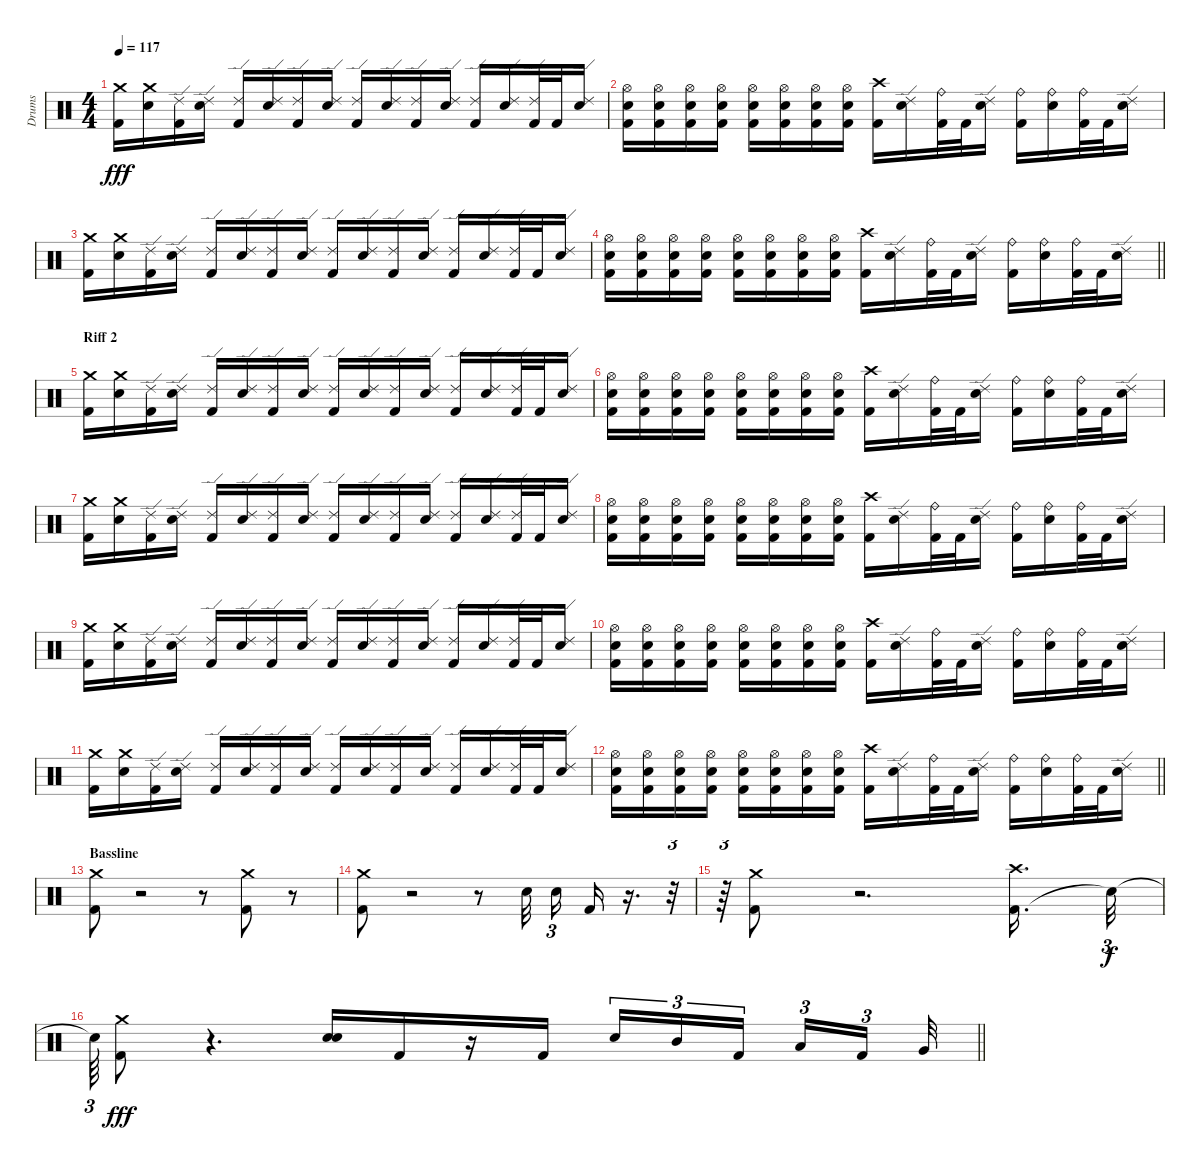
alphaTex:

\track ("Drums" "Drums") {instrument percussion}
\staff {score}
\articulation defaults
\ts (4 4)
\tempo 117
\clef neutral
\ks c
("Kick (hit) 2" "Crash medium (hit)").16{dy fff} ("Snare (hit) 2" "Crash medium (hit)").16 ("Kick (hit) 2" "Ride (edge) 2").16 ("Snare (hit) 2" "Ride (edge) 2").16 ("Kick (hit) 2" "Ride (edge) 2").16 ("Snare (hit) 2" "Ride (edge) 2").16 ("Kick (hit) 2" "Ride (edge) 2").16 ("Snare (hit) 2" "Ride (edge) 2").16 ("Kick (hit) 2" "Ride (edge) 2").16 ("Snare (hit) 2" "Ride (edge) 2").16 ("Kick (hit) 2" "Ride (edge) 2").16 ("Snare (hit) 2" "Ride (edge) 2").16 ("Kick (hit) 2" "Ride (edge) 2").16 ("Snare (hit) 2" "Ride (edge) 2").16 ("Kick (hit) 2" "Ride (edge) 2").32 "Kick (hit) 2".32 ("Snare (hit) 2" "Ride (edge) 2").16 |
("Kick (hit) 2" "Snare (hit) 2" "Hi-Hat (open)").16 ("Kick (hit) 2" "Snare (hit) 2" "Hi-Hat (open)").16 ("Kick (hit) 2" "Snare (hit) 2" "Hi-Hat (open)").16 ("Kick (hit) 2" "Snare (hit) 2" "Hi-Hat (open)").16 ("Kick (hit) 2" "Snare (hit) 2" "Hi-Hat (open)").16 ("Kick (hit) 2" "Snare (hit) 2" "Hi-Hat (open)").16 ("Kick (hit) 2" "Snare (hit) 2" "Hi-Hat (open)").16 ("Kick (hit) 2" "Snare (hit) 2" "Hi-Hat (open)").16 ("Kick (hit) 2" "Crash high (hit)").16 ("Snare (hit) 2" "Ride (edge) 2").16 ("Kick (hit) 2" "Ride (bell)").32 "Kick (hit) 2".32 ("Snare (hit) 2" "Ride (edge) 2").16 ("Kick (hit) 2" "Ride (bell)").16 ("Snare (hit) 2" "Ride (bell)").16 ("Kick (hit) 2" "Ride (bell)").32 "Kick (hit) 2".32 ("Snare (hit) 2" "Ride (edge) 2").16 |
("Kick (hit) 2" "Crash medium (hit)").16 ("Snare (hit) 2" "Crash medium (hit)").16 ("Kick (hit) 2" "Ride (edge) 2").16 ("Snare (hit) 2" "Ride (edge) 2").16 ("Kick (hit) 2" "Ride (edge) 2").16 ("Snare (hit) 2" "Ride (edge) 2").16 ("Kick (hit) 2" "Ride (edge) 2").16 ("Snare (hit) 2" "Ride (edge) 2").16 ("Kick (hit) 2" "Ride (edge) 2").16 ("Snare (hit) 2" "Ride (edge) 2").16 ("Kick (hit) 2" "Ride (edge) 2").16 ("Snare (hit) 2" "Ride (edge) 2").16 ("Kick (hit) 2" "Ride (edge) 2").16 ("Snare (hit) 2" "Ride (edge) 2").16 ("Kick (hit) 2" "Ride (edge) 2").32 "Kick (hit) 2".32 ("Snare (hit) 2" "Ride (edge) 2").16 |
\barLineRight lightlight
("Kick (hit) 2" "Snare (hit) 2" "Hi-Hat (open)").16 ("Kick (hit) 2" "Snare (hit) 2" "Hi-Hat (open)").16 ("Kick (hit) 2" "Snare (hit) 2" "Hi-Hat (open)").16 ("Kick (hit) 2" "Snare (hit) 2" "Hi-Hat (open)").16 ("Kick (hit) 2" "Snare (hit) 2" "Hi-Hat (open)").16 ("Kick (hit) 2" "Snare (hit) 2" "Hi-Hat (open)").16 ("Kick (hit) 2" "Snare (hit) 2" "Hi-Hat (open)").16 ("Kick (hit) 2" "Snare (hit) 2" "Hi-Hat (open)").16 ("Kick (hit) 2" "Crash high (hit)").16 ("Snare (hit) 2" "Ride (edge) 2").16 ("Kick (hit) 2" "Ride (bell)").32 "Kick (hit) 2".32 ("Snare (hit) 2" "Ride (edge) 2").16 ("Kick (hit) 2" "Ride (bell)").16 ("Snare (hit) 2" "Ride (bell)").16 ("Kick (hit) 2" "Ride (bell)").32 "Kick (hit) 2".32 ("Snare (hit) 2" "Ride (edge) 2").16 |
\section ("" "Riff 2")
("Kick (hit) 2" "Crash medium (hit)").16 ("Snare (hit) 2" "Crash medium (hit)").16 ("Kick (hit) 2" "Ride (edge) 2").16 ("Snare (hit) 2" "Ride (edge) 2").16 ("Kick (hit) 2" "Ride (edge) 2").16 ("Snare (hit) 2" "Ride (edge) 2").16 ("Kick (hit) 2" "Ride (edge) 2").16 ("Snare (hit) 2" "Ride (edge) 2").16 ("Kick (hit) 2" "Ride (edge) 2").16 ("Snare (hit) 2" "Ride (edge) 2").16 ("Kick (hit) 2" "Ride (edge) 2").16 ("Snare (hit) 2" "Ride (edge) 2").16 ("Kick (hit) 2" "Ride (edge) 2").16 ("Snare (hit) 2" "Ride (edge) 2").16 ("Kick (hit) 2" "Ride (edge) 2").32 "Kick (hit) 2".32 ("Snare (hit) 2" "Ride (edge) 2").16 |
("Kick (hit) 2" "Snare (hit) 2" "Hi-Hat (open)").16 ("Kick (hit) 2" "Snare (hit) 2" "Hi-Hat (open)").16 ("Kick (hit) 2" "Snare (hit) 2" "Hi-Hat (open)").16 ("Kick (hit) 2" "Snare (hit) 2" "Hi-Hat (open)").16 ("Kick (hit) 2" "Snare (hit) 2" "Hi-Hat (open)").16 ("Kick (hit) 2" "Snare (hit) 2" "Hi-Hat (open)").16 ("Kick (hit) 2" "Snare (hit) 2" "Hi-Hat (open)").16 ("Kick (hit) 2" "Snare (hit) 2" "Hi-Hat (open)").16 ("Kick (hit) 2" "Crash high (hit)").16 ("Snare (hit) 2" "Ride (edge) 2").16 ("Kick (hit) 2" "Ride (bell)").32 "Kick (hit) 2".32 ("Snare (hit) 2" "Ride (edge) 2").16 ("Kick (hit) 2" "Ride (bell)").16 ("Snare (hit) 2" "Ride (bell)").16 ("Kick (hit) 2" "Ride (bell)").32 "Kick (hit) 2".32 ("Snare (hit) 2" "Ride (edge) 2").16 |
("Kick (hit) 2" "Crash medium (hit)").16 ("Snare (hit) 2" "Crash medium (hit)").16 ("Kick (hit) 2" "Ride (edge) 2").16 ("Snare (hit) 2" "Ride (edge) 2").16 ("Kick (hit) 2" "Ride (edge) 2").16 ("Snare (hit) 2" "Ride (edge) 2").16 ("Kick (hit) 2" "Ride (edge) 2").16 ("Snare (hit) 2" "Ride (edge) 2").16 ("Kick (hit) 2" "Ride (edge) 2").16 ("Snare (hit) 2" "Ride (edge) 2").16 ("Kick (hit) 2" "Ride (edge) 2").16 ("Snare (hit) 2" "Ride (edge) 2").16 ("Kick (hit) 2" "Ride (edge) 2").16 ("Snare (hit) 2" "Ride (edge) 2").16 ("Kick (hit) 2" "Ride (edge) 2").32 "Kick (hit) 2".32 ("Snare (hit) 2" "Ride (edge) 2").16 |
("Kick (hit) 2" "Snare (hit) 2" "Hi-Hat (open)").16 ("Kick (hit) 2" "Snare (hit) 2" "Hi-Hat (open)").16 ("Kick (hit) 2" "Snare (hit) 2" "Hi-Hat (open)").16 ("Kick (hit) 2" "Snare (hit) 2" "Hi-Hat (open)").16 ("Kick (hit) 2" "Snare (hit) 2" "Hi-Hat (open)").16 ("Kick (hit) 2" "Snare (hit) 2" "Hi-Hat (open)").16 ("Kick (hit) 2" "Snare (hit) 2" "Hi-Hat (open)").16 ("Kick (hit) 2" "Snare (hit) 2" "Hi-Hat (open)").16 ("Kick (hit) 2" "Crash high (hit)").16 ("Snare (hit) 2" "Ride (edge) 2").16 ("Kick (hit) 2" "Ride (bell)").32 "Kick (hit) 2".32 ("Snare (hit) 2" "Ride (edge) 2").16 ("Kick (hit) 2" "Ride (bell)").16 ("Snare (hit) 2" "Ride (bell)").16 ("Kick (hit) 2" "Ride (bell)").32 "Kick (hit) 2".32 ("Snare (hit) 2" "Ride (edge) 2").16 |
("Kick (hit) 2" "Crash medium (hit)").16 ("Snare (hit) 2" "Crash medium (hit)").16 ("Kick (hit) 2" "Ride (edge) 2").16 ("Snare (hit) 2" "Ride (edge) 2").16 ("Kick (hit) 2" "Ride (edge) 2").16 ("Snare (hit) 2" "Ride (edge) 2").16 ("Kick (hit) 2" "Ride (edge) 2").16 ("Snare (hit) 2" "Ride (edge) 2").16 ("Kick (hit) 2" "Ride (edge) 2").16 ("Snare (hit) 2" "Ride (edge) 2").16 ("Kick (hit) 2" "Ride (edge) 2").16 ("Snare (hit) 2" "Ride (edge) 2").16 ("Kick (hit) 2" "Ride (edge) 2").16 ("Snare (hit) 2" "Ride (edge) 2").16 ("Kick (hit) 2" "Ride (edge) 2").32 "Kick (hit) 2".32 ("Snare (hit) 2" "Ride (edge) 2").16 |
("Kick (hit) 2" "Snare (hit) 2" "Hi-Hat (open)").16 ("Kick (hit) 2" "Snare (hit) 2" "Hi-Hat (open)").16 ("Kick (hit) 2" "Snare (hit) 2" "Hi-Hat (open)").16 ("Kick (hit) 2" "Snare (hit) 2" "Hi-Hat (open)").16 ("Kick (hit) 2" "Snare (hit) 2" "Hi-Hat (open)").16 ("Kick (hit) 2" "Snare (hit) 2" "Hi-Hat (open)").16 ("Kick (hit) 2" "Snare (hit) 2" "Hi-Hat (open)").16 ("Kick (hit) 2" "Snare (hit) 2" "Hi-Hat (open)").16 ("Kick (hit) 2" "Crash high (hit)").16 ("Snare (hit) 2" "Ride (edge) 2").16 ("Kick (hit) 2" "Ride (bell)").32 "Kick (hit) 2".32 ("Snare (hit) 2" "Ride (edge) 2").16 ("Kick (hit) 2" "Ride (bell)").16 ("Snare (hit) 2" "Ride (bell)").16 ("Kick (hit) 2" "Ride (bell)").32 "Kick (hit) 2".32 ("Snare (hit) 2" "Ride (edge) 2").16 |
("Kick (hit) 2" "Crash medium (hit)").16 ("Snare (hit) 2" "Crash medium (hit)").16 ("Kick (hit) 2" "Ride (edge) 2").16 ("Snare (hit) 2" "Ride (edge) 2").16 ("Kick (hit) 2" "Ride (edge) 2").16 ("Snare (hit) 2" "Ride (edge) 2").16 ("Kick (hit) 2" "Ride (edge) 2").16 ("Snare (hit) 2" "Ride (edge) 2").16 ("Kick (hit) 2" "Ride (edge) 2").16 ("Snare (hit) 2" "Ride (edge) 2").16 ("Kick (hit) 2" "Ride (edge) 2").16 ("Snare (hit) 2" "Ride (edge) 2").16 ("Kick (hit) 2" "Ride (edge) 2").16 ("Snare (hit) 2" "Ride (edge) 2").16 ("Kick (hit) 2" "Ride (edge) 2").32 "Kick (hit) 2".32 ("Snare (hit) 2" "Ride (edge) 2").16 |
\barLineRight lightlight
("Kick (hit) 2" "Snare (hit) 2" "Hi-Hat (open)").16 ("Kick (hit) 2" "Snare (hit) 2" "Hi-Hat (open)").16 ("Kick (hit) 2" "Snare (hit) 2" "Hi-Hat (open)").16 ("Kick (hit) 2" "Snare (hit) 2" "Hi-Hat (open)").16 ("Kick (hit) 2" "Snare (hit) 2" "Hi-Hat (open)").16 ("Kick (hit) 2" "Snare (hit) 2" "Hi-Hat (open)").16 ("Kick (hit) 2" "Snare (hit) 2" "Hi-Hat (open)").16 ("Kick (hit) 2" "Snare (hit) 2" "Hi-Hat (open)").16 ("Kick (hit) 2" "Crash high (hit)").16 ("Snare (hit) 2" "Ride (edge) 2").16 ("Kick (hit) 2" "Ride (bell)").32 "Kick (hit) 2".32 ("Snare (hit) 2" "Ride (edge) 2").16 ("Kick (hit) 2" "Ride (bell)").16 ("Snare (hit) 2" "Ride (bell)").16 ("Kick (hit) 2" "Ride (bell)").32 "Kick (hit) 2".32 ("Snare (hit) 2" "Ride (edge) 2").16 |
\section ("" "Bassline")
("Kick (hit) 2" "Crash medium (hit)").8 r.2 r.8 ("Kick (hit) 2" "Crash medium (hit)").8 r.8 |
("Kick (hit) 2" "Crash medium (hit)").8 r.2 r.8 "Snare (hit) 2".32{beam splitsecondary} "Snare (hit) 2".16{tu (3 2)} "Kick (hit) 2".16 r.16{d} r.32{tu (3 2)} |
r.64{tu (3 2)} ("Kick (hit) 2" "Crash medium (hit)").8 r.2{d} ("Kick (hit) 2" "Crash high (hit)").16{d} "Snare (hit)"{t}.32{tu (3 2) dy f} |
\barLineRight lightlight "Snare (hit)"{t}.64{tu (3 2)}
("Kick (hit) 2" "Crash medium (hit)").8{dy fff} r.4{d} ("Snare (hit) 2" "Snare (hit) 2").16 "Kick (hit) 2".16 r.16 "Kick (hit) 2".16 "Snare (hit) 2".16{tu (3 2)} "Mid Tom (hit)".16{tu (3 2)} "Kick (hit) 2".16{tu (3 2) beam splitsecondary} "Low Tom (hit)".16{tu (3 2)} "Kick (hit) 2".16{tu (3 2) beam splitsecondary} "Very Low Tom (hit)".32
